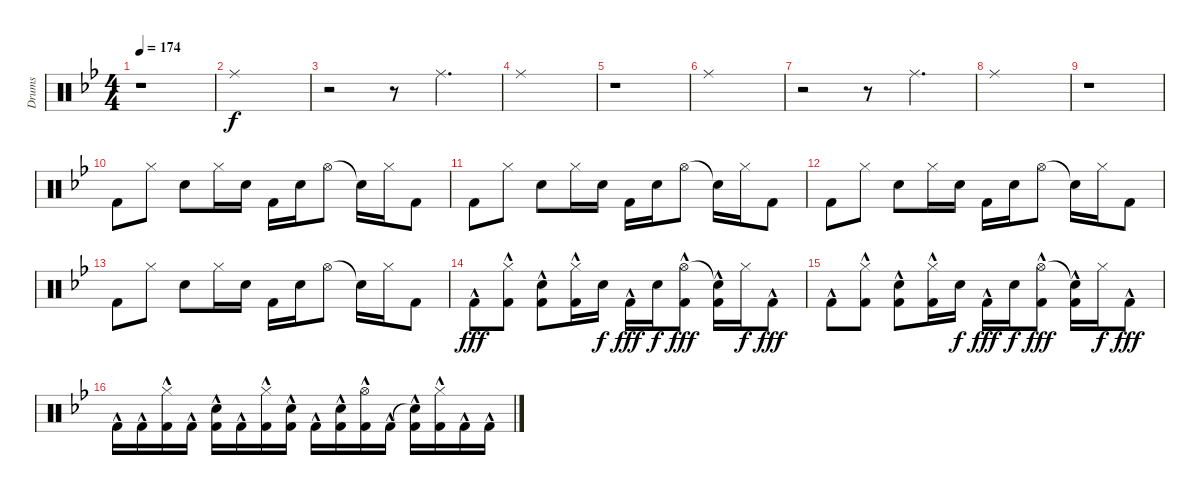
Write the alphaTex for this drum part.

\track ("Drums" "Drums") {instrument percussion}
\staff {score}
\articulation defaults
\ts (4 4)
\tempo 174
\clef neutral
\ks gminor
r.1{dy f} |
"Ride (middle)".1 |
r.2 r.8 "Ride (middle)".4{d} |
"Ride (middle)".1 |
r.1 |
"Ride (middle)".1 |
r.2 r.8 "Ride (middle)".4{d} |
"Ride (middle)".1 |
r.1 |
"Kick (hit) 2".8 "Hi-Hat (closed)".8 "Hand Clap (hit)".8 "Hi-Hat (closed)".16 "Snare (hit) 2".16 "Kick (hit) 2".16 "Snare (hit) 2".16 "Hi-Hat (open)".8 "Snare (hit)"{t}.16 "Hi-Hat (closed)".16 "Kick (hit) 2".8 |
"Kick (hit) 2".8 "Hi-Hat (closed)".8 "Hand Clap (hit)".8 "Hi-Hat (closed)".16 "Snare (hit) 2".16 "Kick (hit) 2".16 "Snare (hit) 2".16 "Hi-Hat (open)".8 "Snare (hit)"{t}.16 "Hi-Hat (closed)".16 "Kick (hit) 2".8 |
"Kick (hit) 2".8 "Hi-Hat (closed)".8 "Hand Clap (hit)".8 "Hi-Hat (closed)".16 "Snare (hit) 2".16 "Kick (hit) 2".16 "Snare (hit) 2".16 "Hi-Hat (open)".8 "Snare (hit)"{t}.16 "Hi-Hat (closed)".16 "Kick (hit) 2".8 |
"Kick (hit) 2".8 "Hi-Hat (closed)".8 "Hand Clap (hit)".8 "Hi-Hat (closed)".16 "Snare (hit) 2".16 "Kick (hit) 2".16 "Snare (hit) 2".16 "Hi-Hat (open)".8 "Snare (hit)"{t}.16 "Hi-Hat (closed)".16 "Kick (hit) 2".8 |
"Kick (hit) 2"{hac}.8{dy fff} ("Hi-Hat (closed)" "Kick (hit) 2"{hac}).8 ("Hand Clap (hit)" "Kick (hit) 2"{hac}).8 ("Hi-Hat (closed)" "Kick (hit) 2"{hac}).16 "Snare (hit) 2".16{dy f} "Kick (hit) 2"{hac}.16{dy fff} "Snare (hit) 2".16{dy f} ("Hi-Hat (open)" "Kick (hit) 2"{hac}).8{dy fff} ("Snare (hit)"{t} "Kick (hit) 2"{hac}).16 "Hi-Hat (closed)".16{dy f} "Kick (hit) 2"{hac}.8{dy fff} |
"Kick (hit) 2"{hac}.8 ("Hi-Hat (closed)" "Kick (hit) 2"{hac}).8 ("Hand Clap (hit)" "Kick (hit) 2"{hac}).8 ("Hi-Hat (closed)" "Kick (hit) 2"{hac}).16 "Snare (hit) 2".16{dy f} "Kick (hit) 2"{hac}.16{dy fff} "Snare (hit) 2".16{dy f} ("Hi-Hat (open)" "Kick (hit) 2"{hac}).8{dy fff} ("Snare (hit)"{t} "Kick (hit) 2"{hac}).16 "Hi-Hat (closed)".16{dy f} "Kick (hit) 2"{hac}.8{dy fff} |
"Kick (hit) 2"{hac}.16 "Kick (hit) 2"{hac}.16 ("Hi-Hat (closed)" "Kick (hit) 2"{hac}).16 "Kick (hit) 2"{hac}.16 ("Hand Clap (hit)" "Kick (hit) 2"{hac}).16 "Kick (hit) 2"{hac}.16 ("Hi-Hat (closed)" "Kick (hit) 2"{hac}).16 ("Snare (hit) 2" "Kick (hit) 2"{hac}).16 "Kick (hit) 2"{hac}.16 ("Snare (hit) 2" "Kick (hit) 2"{hac}).16 ("Hi-Hat (open)" "Kick (hit) 2"{hac}).16 "Kick (hit) 2"{hac}.16 ("Snare (hit)"{t} "Kick (hit) 2"{hac}).16 ("Hi-Hat (closed)" "Kick (hit) 2"{hac}).16 "Kick (hit) 2"{hac}.16 "Kick (hit) 2"{hac}.16
